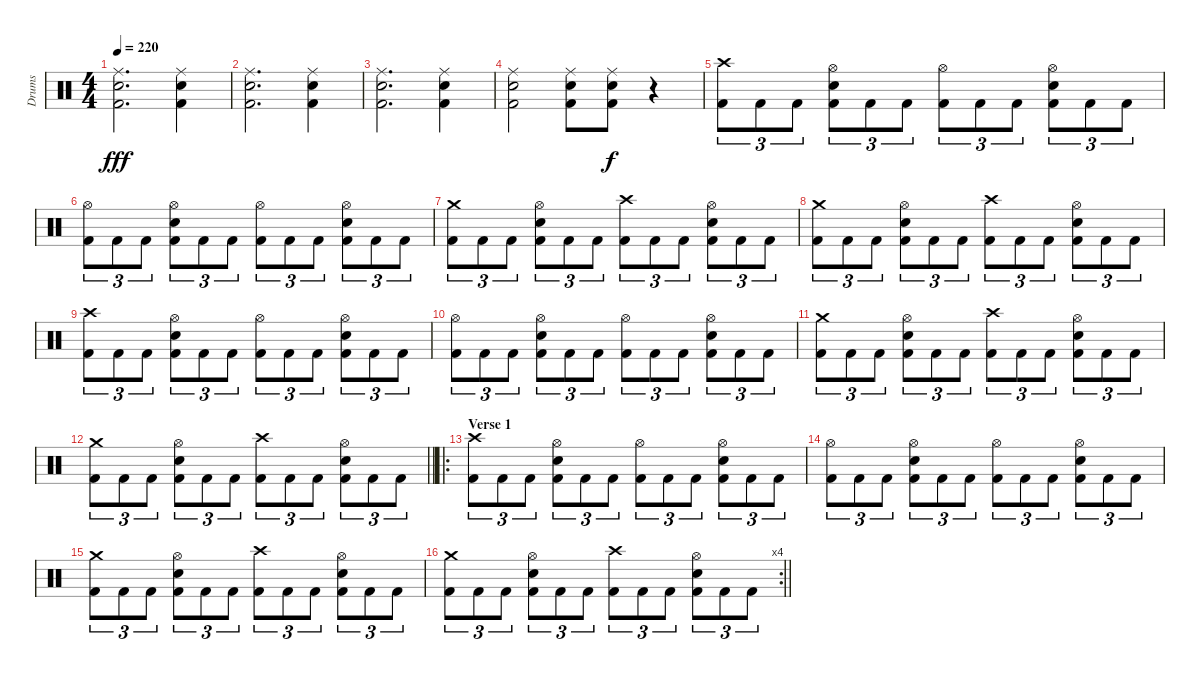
\track ("Drums" "Drums") {instrument percussion}
\staff {score}
\articulation defaults
\ts (4 4)
\tempo 220
\clef neutral
\ks c
("Ride (middle)" "Snare (hit) 2" "Kick (hit) 2").2{d dy fff} ("Ride (middle)" "Snare (hit) 2" "Kick (hit) 2").4 |
("Ride (middle)" "Snare (hit) 2" "Kick (hit) 2").2{d} ("Ride (middle)" "Snare (hit) 2" "Kick (hit) 2").4 |
("Ride (middle)" "Snare (hit) 2" "Kick (hit) 2").2{d} ("Ride (middle)" "Snare (hit) 2" "Kick (hit) 2").4 |
("Ride (middle)" "Snare (hit) 2" "Kick (hit) 2").2 ("Ride (middle)" "Snare (hit) 2" "Kick (hit) 2").8 ("Ride (middle)" "Snare (hit) 2" "Kick (hit) 2").8{dy f} r.4 |
("Crash high (hit)" "Kick (hit) 2").8{tu (3 2)} "Kick (hit) 2".8{tu (3 2)} "Kick (hit) 2".8{tu (3 2)} ("Hi-Hat (open)" "Snare (hit) 2" "Kick (hit) 2").8{tu (3 2)} "Kick (hit) 2".8{tu (3 2)} "Kick (hit) 2".8{tu (3 2)} ("Hi-Hat (open)" "Kick (hit) 2").8{tu (3 2)} "Kick (hit) 2".8{tu (3 2)} "Kick (hit) 2".8{tu (3 2)} ("Hi-Hat (open)" "Snare (hit) 2" "Kick (hit) 2").8{tu (3 2)} "Kick (hit) 2".8{tu (3 2)} "Kick (hit) 2".8{tu (3 2)} |
("Hi-Hat (open)" "Kick (hit) 2").8{tu (3 2)} "Kick (hit) 2".8{tu (3 2)} "Kick (hit) 2".8{tu (3 2)} ("Hi-Hat (open)" "Snare (hit) 2" "Kick (hit) 2").8{tu (3 2)} "Kick (hit) 2".8{tu (3 2)} "Kick (hit) 2".8{tu (3 2)} ("Hi-Hat (open)" "Kick (hit) 2").8{tu (3 2)} "Kick (hit) 2".8{tu (3 2)} "Kick (hit) 2".8{tu (3 2)} ("Hi-Hat (open)" "Snare (hit) 2" "Kick (hit) 2").8{tu (3 2)} "Kick (hit) 2".8{tu (3 2)} "Kick (hit) 2".8{tu (3 2)} |
("Crash medium (hit)" "Kick (hit) 2").8{tu (3 2)} "Kick (hit) 2".8{tu (3 2)} "Kick (hit) 2".8{tu (3 2)} ("Hi-Hat (open)" "Snare (hit) 2" "Kick (hit) 2").8{tu (3 2)} "Kick (hit) 2".8{tu (3 2)} "Kick (hit) 2".8{tu (3 2)} ("Crash high (hit)" "Kick (hit) 2").8{tu (3 2)} "Kick (hit) 2".8{tu (3 2)} "Kick (hit) 2".8{tu (3 2)} ("Hi-Hat (open)" "Snare (hit) 2" "Kick (hit) 2").8{tu (3 2)} "Kick (hit) 2".8{tu (3 2)} "Kick (hit) 2".8{tu (3 2)} |
("Crash medium (hit)" "Kick (hit) 2").8{tu (3 2)} "Kick (hit) 2".8{tu (3 2)} "Kick (hit) 2".8{tu (3 2)} ("Hi-Hat (open)" "Snare (hit) 2" "Kick (hit) 2").8{tu (3 2)} "Kick (hit) 2".8{tu (3 2)} "Kick (hit) 2".8{tu (3 2)} ("Crash high (hit)" "Kick (hit) 2").8{tu (3 2)} "Kick (hit) 2".8{tu (3 2)} "Kick (hit) 2".8{tu (3 2)} ("Hi-Hat (open)" "Snare (hit) 2" "Kick (hit) 2").8{tu (3 2)} "Kick (hit) 2".8{tu (3 2)} "Kick (hit) 2".8{tu (3 2)} |
("Crash high (hit)" "Kick (hit) 2").8{tu (3 2)} "Kick (hit) 2".8{tu (3 2)} "Kick (hit) 2".8{tu (3 2)} ("Hi-Hat (open)" "Snare (hit) 2" "Kick (hit) 2").8{tu (3 2)} "Kick (hit) 2".8{tu (3 2)} "Kick (hit) 2".8{tu (3 2)} ("Hi-Hat (open)" "Kick (hit) 2").8{tu (3 2)} "Kick (hit) 2".8{tu (3 2)} "Kick (hit) 2".8{tu (3 2)} ("Hi-Hat (open)" "Snare (hit) 2" "Kick (hit) 2").8{tu (3 2)} "Kick (hit) 2".8{tu (3 2)} "Kick (hit) 2".8{tu (3 2)} |
("Hi-Hat (open)" "Kick (hit) 2").8{tu (3 2)} "Kick (hit) 2".8{tu (3 2)} "Kick (hit) 2".8{tu (3 2)} ("Hi-Hat (open)" "Snare (hit) 2" "Kick (hit) 2").8{tu (3 2)} "Kick (hit) 2".8{tu (3 2)} "Kick (hit) 2".8{tu (3 2)} ("Hi-Hat (open)" "Kick (hit) 2").8{tu (3 2)} "Kick (hit) 2".8{tu (3 2)} "Kick (hit) 2".8{tu (3 2)} ("Hi-Hat (open)" "Snare (hit) 2" "Kick (hit) 2").8{tu (3 2)} "Kick (hit) 2".8{tu (3 2)} "Kick (hit) 2".8{tu (3 2)} |
("Crash medium (hit)" "Kick (hit) 2").8{tu (3 2)} "Kick (hit) 2".8{tu (3 2)} "Kick (hit) 2".8{tu (3 2)} ("Hi-Hat (open)" "Snare (hit) 2" "Kick (hit) 2").8{tu (3 2)} "Kick (hit) 2".8{tu (3 2)} "Kick (hit) 2".8{tu (3 2)} ("Crash high (hit)" "Kick (hit) 2").8{tu (3 2)} "Kick (hit) 2".8{tu (3 2)} "Kick (hit) 2".8{tu (3 2)} ("Hi-Hat (open)" "Snare (hit) 2" "Kick (hit) 2").8{tu (3 2)} "Kick (hit) 2".8{tu (3 2)} "Kick (hit) 2".8{tu (3 2)} |
\barLineRight lightlight
("Crash medium (hit)" "Kick (hit) 2").8{tu (3 2)} "Kick (hit) 2".8{tu (3 2)} "Kick (hit) 2".8{tu (3 2)} ("Hi-Hat (open)" "Snare (hit) 2" "Kick (hit) 2").8{tu (3 2)} "Kick (hit) 2".8{tu (3 2)} "Kick (hit) 2".8{tu (3 2)} ("Crash high (hit)" "Kick (hit) 2").8{tu (3 2)} "Kick (hit) 2".8{tu (3 2)} "Kick (hit) 2".8{tu (3 2)} ("Hi-Hat (open)" "Snare (hit) 2" "Kick (hit) 2").8{tu (3 2)} "Kick (hit) 2".8{tu (3 2)} "Kick (hit) 2".8{tu (3 2)} |
\ro
\section ("" "Verse 1")
("Crash high (hit)" "Kick (hit) 2").8{tu (3 2)} "Kick (hit) 2".8{tu (3 2)} "Kick (hit) 2".8{tu (3 2)} ("Hi-Hat (open)" "Snare (hit) 2" "Kick (hit) 2").8{tu (3 2)} "Kick (hit) 2".8{tu (3 2)} "Kick (hit) 2".8{tu (3 2)} ("Hi-Hat (open)" "Kick (hit) 2").8{tu (3 2)} "Kick (hit) 2".8{tu (3 2)} "Kick (hit) 2".8{tu (3 2)} ("Hi-Hat (open)" "Snare (hit) 2" "Kick (hit) 2").8{tu (3 2)} "Kick (hit) 2".8{tu (3 2)} "Kick (hit) 2".8{tu (3 2)} |
("Hi-Hat (open)" "Kick (hit) 2").8{tu (3 2)} "Kick (hit) 2".8{tu (3 2)} "Kick (hit) 2".8{tu (3 2)} ("Hi-Hat (open)" "Snare (hit) 2" "Kick (hit) 2").8{tu (3 2)} "Kick (hit) 2".8{tu (3 2)} "Kick (hit) 2".8{tu (3 2)} ("Hi-Hat (open)" "Kick (hit) 2").8{tu (3 2)} "Kick (hit) 2".8{tu (3 2)} "Kick (hit) 2".8{tu (3 2)} ("Hi-Hat (open)" "Snare (hit) 2" "Kick (hit) 2").8{tu (3 2)} "Kick (hit) 2".8{tu (3 2)} "Kick (hit) 2".8{tu (3 2)} |
("Crash medium (hit)" "Kick (hit) 2").8{tu (3 2)} "Kick (hit) 2".8{tu (3 2)} "Kick (hit) 2".8{tu (3 2)} ("Hi-Hat (open)" "Snare (hit) 2" "Kick (hit) 2").8{tu (3 2)} "Kick (hit) 2".8{tu (3 2)} "Kick (hit) 2".8{tu (3 2)} ("Crash high (hit)" "Kick (hit) 2").8{tu (3 2)} "Kick (hit) 2".8{tu (3 2)} "Kick (hit) 2".8{tu (3 2)} ("Hi-Hat (open)" "Snare (hit) 2" "Kick (hit) 2").8{tu (3 2)} "Kick (hit) 2".8{tu (3 2)} "Kick (hit) 2".8{tu (3 2)} |
\rc 4
\barLineRight lightlight
("Crash medium (hit)" "Kick (hit) 2").8{tu (3 2)} "Kick (hit) 2".8{tu (3 2)} "Kick (hit) 2".8{tu (3 2)} ("Hi-Hat (open)" "Snare (hit) 2" "Kick (hit) 2").8{tu (3 2)} "Kick (hit) 2".8{tu (3 2)} "Kick (hit) 2".8{tu (3 2)} ("Crash high (hit)" "Kick (hit) 2").8{tu (3 2)} "Kick (hit) 2".8{tu (3 2)} "Kick (hit) 2".8{tu (3 2)} ("Hi-Hat (open)" "Snare (hit) 2" "Kick (hit) 2").8{tu (3 2)} "Kick (hit) 2".8{tu (3 2)} "Kick (hit) 2".8{tu (3 2)}
